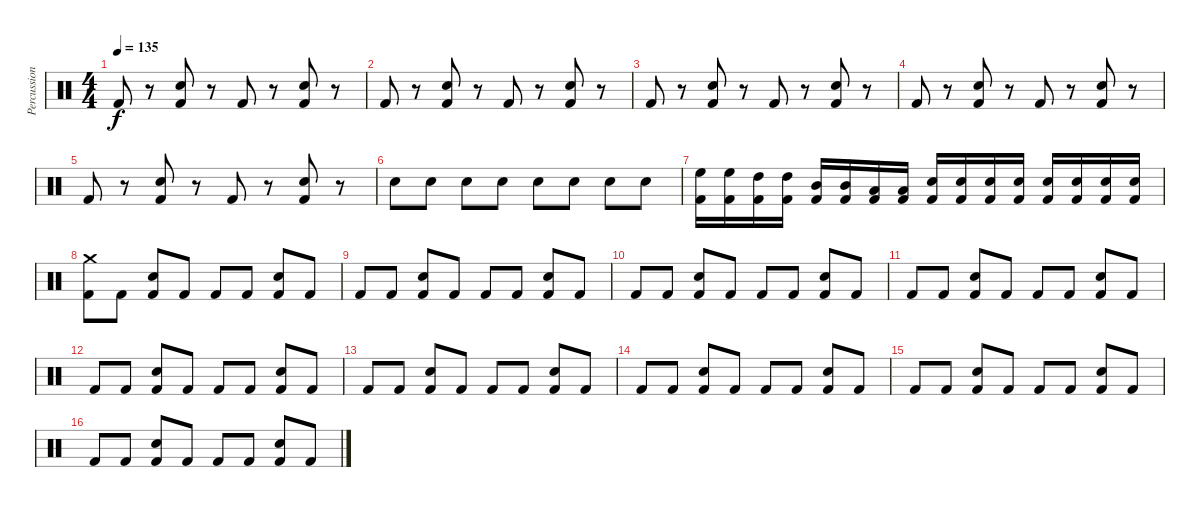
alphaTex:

\track ("Percussions" "Percussion") {instrument percussion}
\staff {score}
\articulation defaults
\ts (4 4)
\tempo 135
\clef neutral
\ks c "Kick (hit) 2".8{dy f}
r.8 ("Snare (hit) 2" "Kick (hit) 2").8 r.8 "Kick (hit) 2".8 r.8 ("Snare (hit) 2" "Kick (hit) 2").8 r.8 |
"Kick (hit) 2".8 r.8 ("Snare (hit) 2" "Kick (hit) 2").8 r.8 "Kick (hit) 2".8 r.8 ("Snare (hit) 2" "Kick (hit) 2").8 r.8 |
"Kick (hit) 2".8 r.8 ("Snare (hit) 2" "Kick (hit) 2").8 r.8 "Kick (hit) 2".8 r.8 ("Snare (hit) 2" "Kick (hit) 2").8 r.8 |
"Kick (hit) 2".8 r.8 ("Snare (hit) 2" "Kick (hit) 2").8 r.8 "Kick (hit) 2".8 r.8 ("Snare (hit) 2" "Kick (hit) 2").8 r.8 |
"Kick (hit) 2".8 r.8 ("Snare (hit) 2" "Kick (hit) 2").8 r.8 "Kick (hit) 2".8 r.8 ("Snare (hit) 2" "Kick (hit) 2").8 r.8 |
"Snare (hit) 2".8 "Snare (hit) 2".8 "Snare (hit) 2".8 "Snare (hit) 2".8 "Snare (hit) 2".8 "Snare (hit) 2".8 "Snare (hit) 2".8 "Snare (hit) 2".8 |
("High Floor Tom (hit)" "Kick (hit) 2").16 ("High Floor Tom (hit)" "Kick (hit) 2").16 ("High Tom (hit)" "Kick (hit) 2").16 ("High Tom (hit)" "Kick (hit) 2").16 ("Mid Tom (hit)" "Kick (hit) 2").16 ("Mid Tom (hit)" "Kick (hit) 2").16 ("Low Tom (hit)" "Kick (hit) 2").16 ("Low Tom (hit)" "Kick (hit) 2").16 ("Snare (hit) 2" "Kick (hit) 2").16 ("Snare (hit) 2" "Kick (hit) 2").16 ("Snare (hit) 2" "Kick (hit) 2").16 ("Snare (hit) 2" "Kick (hit) 2").16 ("Snare (hit) 2" "Kick (hit) 2").16 ("Snare (hit) 2" "Kick (hit) 2").16 ("Snare (hit) 2" "Kick (hit) 2").16 ("Snare (hit) 2" "Kick (hit) 2").16 |
("Crash medium (hit)" "Kick (hit) 2").8 "Kick (hit) 2".8 ("Snare (hit) 2" "Kick (hit) 2").8 "Kick (hit) 2".8 "Kick (hit) 2".8 "Kick (hit) 2".8 ("Snare (hit) 2" "Kick (hit) 2").8 "Kick (hit) 2".8 |
"Kick (hit) 2".8 "Kick (hit) 2".8 ("Snare (hit) 2" "Kick (hit) 2").8 "Kick (hit) 2".8 "Kick (hit) 2".8 "Kick (hit) 2".8 ("Snare (hit) 2" "Kick (hit) 2").8 "Kick (hit) 2".8 |
"Kick (hit) 2".8 "Kick (hit) 2".8 ("Snare (hit) 2" "Kick (hit) 2").8 "Kick (hit) 2".8 "Kick (hit) 2".8 "Kick (hit) 2".8 ("Snare (hit) 2" "Kick (hit) 2").8 "Kick (hit) 2".8 |
"Kick (hit) 2".8 "Kick (hit) 2".8 ("Snare (hit) 2" "Kick (hit) 2").8 "Kick (hit) 2".8 "Kick (hit) 2".8 "Kick (hit) 2".8 ("Snare (hit) 2" "Kick (hit) 2").8 "Kick (hit) 2".8 |
"Kick (hit) 2".8 "Kick (hit) 2".8 ("Snare (hit) 2" "Kick (hit) 2").8 "Kick (hit) 2".8 "Kick (hit) 2".8 "Kick (hit) 2".8 ("Snare (hit) 2" "Kick (hit) 2").8 "Kick (hit) 2".8 |
"Kick (hit) 2".8 "Kick (hit) 2".8 ("Snare (hit) 2" "Kick (hit) 2").8 "Kick (hit) 2".8 "Kick (hit) 2".8 "Kick (hit) 2".8 ("Snare (hit) 2" "Kick (hit) 2").8 "Kick (hit) 2".8 |
"Kick (hit) 2".8 "Kick (hit) 2".8 ("Snare (hit) 2" "Kick (hit) 2").8 "Kick (hit) 2".8 "Kick (hit) 2".8 "Kick (hit) 2".8 ("Snare (hit) 2" "Kick (hit) 2").8 "Kick (hit) 2".8 |
"Kick (hit) 2".8 "Kick (hit) 2".8 ("Snare (hit) 2" "Kick (hit) 2").8 "Kick (hit) 2".8 "Kick (hit) 2".8 "Kick (hit) 2".8 ("Snare (hit) 2" "Kick (hit) 2").8 "Kick (hit) 2".8 |
"Kick (hit) 2".8 "Kick (hit) 2".8 ("Snare (hit) 2" "Kick (hit) 2").8 "Kick (hit) 2".8 "Kick (hit) 2".8 "Kick (hit) 2".8 ("Snare (hit) 2" "Kick (hit) 2").8 "Kick (hit) 2".8
